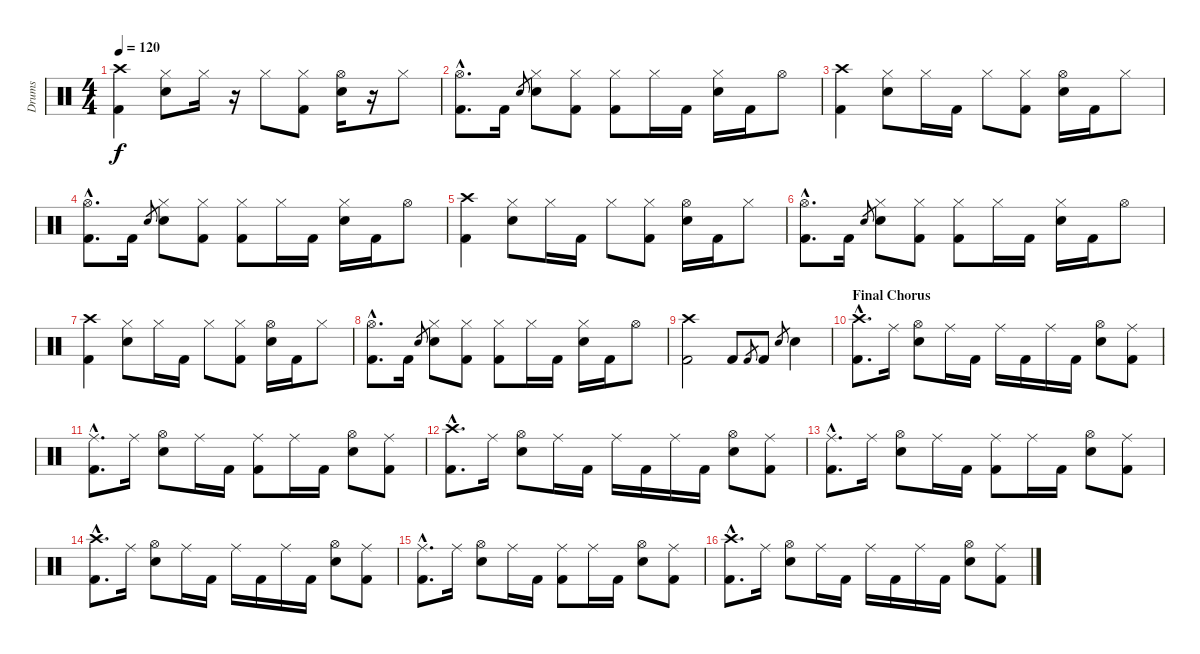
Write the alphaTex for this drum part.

\track ("Drums" "Drums") {instrument percussion}
\staff {score}
\articulation defaults
\ts (4 4)
\tempo 120
\clef neutral
\ks c
("Crash high (hit)" "Kick (hit) 2").4{dy f} ("Hi-Hat (closed)" "Electric Snare (hit)").8 "Hi-Hat (closed)".16 r.16 "Hi-Hat (closed)".8 ("Hi-Hat (closed)" "Kick (hit) 2").8 ("Hi-Hat (open)" "Electric Snare (hit)").16 r.16 "Hi-Hat (closed)".8 |
("Hi-Hat (open)"{hac} "Kick (hit) 2"{hac}).8{d} "Kick (hit) 2".16 "Electric Snare (hit)".8{gr} ("Hi-Hat (closed)" "Electric Snare (hit)").8 ("Hi-Hat (closed)" "Kick (hit) 2").8 ("Hi-Hat (closed)" "Kick (hit) 2").8 "Hi-Hat (closed)".16 "Kick (hit) 2".16 ("Hi-Hat (closed)" "Electric Snare (hit)").16 "Kick (hit) 2".16 "Hi-Hat (open)".8 |
("Crash high (hit)" "Kick (hit) 2").4 ("Hi-Hat (closed)" "Electric Snare (hit)").8 "Hi-Hat (closed)".16 "Kick (hit) 2".16 "Hi-Hat (closed)".8 ("Hi-Hat (closed)" "Kick (hit) 2").8 ("Hi-Hat (open)" "Electric Snare (hit)").16 "Kick (hit) 2".16 "Hi-Hat (closed)".8 |
("Hi-Hat (open)"{hac} "Kick (hit) 2"{hac}).8{d} "Kick (hit) 2".16 "Electric Snare (hit)".8{gr} ("Hi-Hat (closed)" "Electric Snare (hit)").8 ("Hi-Hat (closed)" "Kick (hit) 2").8 ("Hi-Hat (closed)" "Kick (hit) 2").8 "Hi-Hat (closed)".16 "Kick (hit) 2".16 ("Hi-Hat (closed)" "Electric Snare (hit)").16 "Kick (hit) 2".16 "Hi-Hat (open)".8 |
("Crash high (hit)" "Kick (hit) 2").4 ("Hi-Hat (closed)" "Electric Snare (hit)").8 "Hi-Hat (closed)".16 "Kick (hit) 2".16 "Hi-Hat (closed)".8 ("Hi-Hat (closed)" "Kick (hit) 2").8 ("Hi-Hat (open)" "Electric Snare (hit)").16 "Kick (hit) 2".16 "Hi-Hat (closed)".8 |
("Hi-Hat (open)"{hac} "Kick (hit) 2"{hac}).8{d} "Kick (hit) 2".16 "Electric Snare (hit)".8{gr} ("Hi-Hat (closed)" "Electric Snare (hit)").8 ("Hi-Hat (closed)" "Kick (hit) 2").8 ("Hi-Hat (closed)" "Kick (hit) 2").8 "Hi-Hat (closed)".16 "Kick (hit) 2".16 ("Hi-Hat (closed)" "Electric Snare (hit)").16 "Kick (hit) 2".16 "Hi-Hat (open)".8 |
("Crash high (hit)" "Kick (hit) 2").4 ("Hi-Hat (closed)" "Electric Snare (hit)").8 "Hi-Hat (closed)".16 "Kick (hit) 2".16 "Hi-Hat (closed)".8 ("Hi-Hat (closed)" "Kick (hit) 2").8 ("Hi-Hat (open)" "Electric Snare (hit)").16 "Kick (hit) 2".16 "Hi-Hat (closed)".8 |
("Hi-Hat (open)"{hac} "Kick (hit) 2"{hac}).8{d} "Kick (hit) 2".16 "Electric Snare (hit)".8{gr} ("Hi-Hat (closed)" "Electric Snare (hit)").8 ("Hi-Hat (closed)" "Kick (hit) 2").8 ("Hi-Hat (closed)" "Kick (hit) 2").8 "Hi-Hat (closed)".16 "Kick (hit) 2".16 ("Hi-Hat (closed)" "Electric Snare (hit)").16 "Kick (hit) 2".16 "Hi-Hat (open)".8 |
("Crash high (hit)" "Kick (hit) 2").2 "Kick (hit) 2".8 "Kick (hit) 2".8{gr} "Kick (hit) 2".8 "Electric Snare (hit)".8{gr} "Electric Snare (hit)".4 |
\section ("" "Final Chorus")
("Crash high (hit)"{hac} "Kick (hit) 2"{hac}).8{d} "Ride (middle)".16 ("Hi-Hat (open)" "Electric Snare (hit)").8 "Ride (middle)".16 "Kick (hit) 2".16 "Ride (middle)".16 "Kick (hit) 2".16 "Ride (middle)".16 "Kick (hit) 2".16 ("Hi-Hat (open)" "Electric Snare (hit)").8 ("Ride (middle)" "Kick (hit) 2").8 |
("Ride (middle)"{hac} "Kick (hit) 2"{hac}).8{d} "Ride (middle)".16 ("Hi-Hat (open)" "Electric Snare (hit)").8 "Ride (middle)".16 "Kick (hit) 2".16 ("Ride (middle)" "Kick (hit) 2").8 "Ride (middle)".16 "Kick (hit) 2".16 ("Hi-Hat (open)" "Electric Snare (hit)").8 ("Ride (middle)" "Kick (hit) 2").8 |
("Crash high (hit)"{hac} "Kick (hit) 2"{hac}).8{d} "Ride (middle)".16 ("Hi-Hat (open)" "Electric Snare (hit)").8 "Ride (middle)".16 "Kick (hit) 2".16 "Ride (middle)".16 "Kick (hit) 2".16 "Ride (middle)".16 "Kick (hit) 2".16 ("Hi-Hat (open)" "Electric Snare (hit)").8 ("Ride (middle)" "Kick (hit) 2").8 |
("Ride (middle)"{hac} "Kick (hit) 2"{hac}).8{d} "Ride (middle)".16 ("Hi-Hat (open)" "Electric Snare (hit)").8 "Ride (middle)".16 "Kick (hit) 2".16 ("Ride (middle)" "Kick (hit) 2").8 "Ride (middle)".16 "Kick (hit) 2".16 ("Hi-Hat (open)" "Electric Snare (hit)").8 ("Ride (middle)" "Kick (hit) 2").8 |
("Crash high (hit)"{hac} "Kick (hit) 2"{hac}).8{d} "Ride (middle)".16 ("Hi-Hat (open)" "Electric Snare (hit)").8 "Ride (middle)".16 "Kick (hit) 2".16 "Ride (middle)".16 "Kick (hit) 2".16 "Ride (middle)".16 "Kick (hit) 2".16 ("Hi-Hat (open)" "Electric Snare (hit)").8 ("Ride (middle)" "Kick (hit) 2").8 |
("Ride (middle)"{hac} "Kick (hit) 2"{hac}).8{d} "Ride (middle)".16 ("Hi-Hat (open)" "Electric Snare (hit)").8 "Ride (middle)".16 "Kick (hit) 2".16 ("Ride (middle)" "Kick (hit) 2").8 "Ride (middle)".16 "Kick (hit) 2".16 ("Hi-Hat (open)" "Electric Snare (hit)").8 ("Ride (middle)" "Kick (hit) 2").8 |
("Crash high (hit)"{hac} "Kick (hit) 2"{hac}).8{d} "Ride (middle)".16 ("Hi-Hat (open)" "Electric Snare (hit)").8 "Ride (middle)".16 "Kick (hit) 2".16 "Ride (middle)".16 "Kick (hit) 2".16 "Ride (middle)".16 "Kick (hit) 2".16 ("Hi-Hat (open)" "Electric Snare (hit)").8 ("Ride (middle)" "Kick (hit) 2").8
